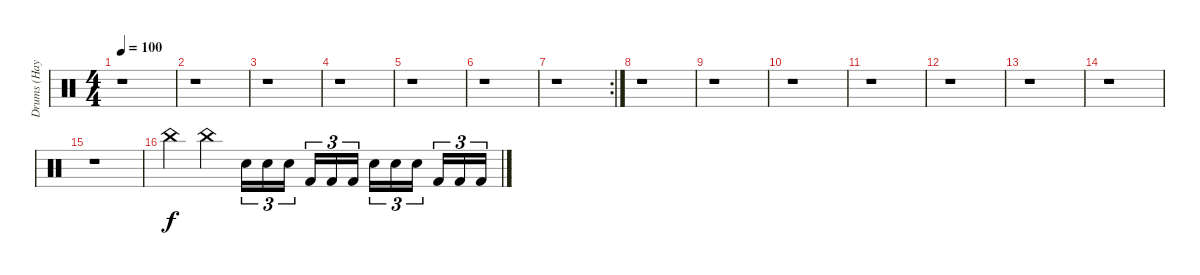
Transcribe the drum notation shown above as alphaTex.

\track ("Drums (Hayden)" "Drums (Hay") {instrument percussion}
\staff {score}
\articulation defaults
\ts (4 4)
\tempo 100
\clef neutral
\ks c
r.1{dy f} |
r.1 |
r.1 |
r.1 |
r.1 |
r.1 |
\rc 2
r.1 |
r.1 |
r.1 |
r.1 |
r.1 |
r.1 |
r.1 |
r.1 |
r.1 |
"China (hit)".4 "China (hit)".4 "Electric Snare (hit)".16{tu (3 2)} "Electric Snare (hit)".16{tu (3 2)} "Electric Snare (hit)".16{tu (3 2)} "Kick (hit) 2".16{tu (3 2)} "Kick (hit) 2".16{tu (3 2)} "Kick (hit) 2".16{tu (3 2)} "Electric Snare (hit)".16{tu (3 2)} "Electric Snare (hit)".16{tu (3 2)} "Electric Snare (hit)".16{tu (3 2)} "Kick (hit) 2".16{tu (3 2)} "Kick (hit) 2".16{tu (3 2)} "Kick (hit) 2".16{tu (3 2)}
